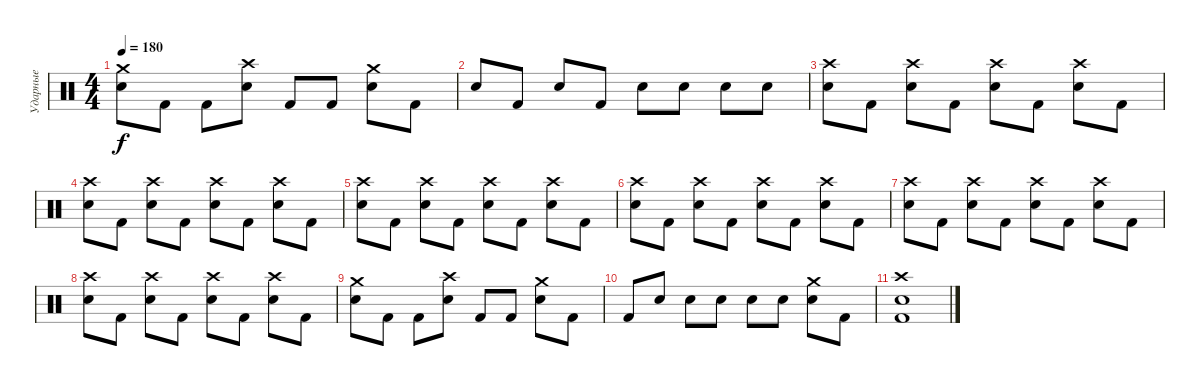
\track ("Ударные" "Ударные") {instrument percussion}
\staff {score}
\articulation defaults
\ts (4 4)
\tempo 180
\clef neutral
\ks c
("Crash medium (hit)" "Snare (hit) 2").8{dy f} "Kick (hit) 2".8 "Kick (hit) 2".8 ("Crash high (hit)" "Snare (hit) 2").8 "Kick (hit) 2".8 "Kick (hit) 2".8 ("Crash medium (hit)" "Snare (hit) 2").8 "Kick (hit) 2".8 |
"Snare (hit) 2".8 "Kick (hit) 2".8 "Snare (hit) 2".8 "Kick (hit) 2".8 "Snare (hit) 2".8 "Snare (hit) 2".8 "Snare (hit) 2".8 "Snare (hit) 2".8 |
("Crash high (hit)" "Snare (hit) 2").8 "Kick (hit) 2".8 ("Crash high (hit)" "Snare (hit) 2").8 "Kick (hit) 2".8 ("Crash high (hit)" "Snare (hit) 2").8 "Kick (hit) 2".8 ("Crash high (hit)" "Snare (hit) 2").8 "Kick (hit) 2".8 |
("Crash high (hit)" "Snare (hit) 2").8 "Kick (hit) 2".8 ("Crash high (hit)" "Snare (hit) 2").8 "Kick (hit) 2".8 ("Crash high (hit)" "Snare (hit) 2").8 "Kick (hit) 2".8 ("Crash high (hit)" "Snare (hit) 2").8 "Kick (hit) 2".8 |
("Crash high (hit)" "Snare (hit) 2").8 "Kick (hit) 2".8 ("Crash high (hit)" "Snare (hit) 2").8 "Kick (hit) 2".8 ("Crash high (hit)" "Snare (hit) 2").8 "Kick (hit) 2".8 ("Crash high (hit)" "Snare (hit) 2").8 "Kick (hit) 2".8 |
("Crash high (hit)" "Snare (hit) 2").8 "Kick (hit) 2".8 ("Crash high (hit)" "Snare (hit) 2").8 "Kick (hit) 2".8 ("Crash high (hit)" "Snare (hit) 2").8 "Kick (hit) 2".8 ("Crash high (hit)" "Snare (hit) 2").8 "Kick (hit) 2".8 |
("Crash high (hit)" "Snare (hit) 2").8 "Kick (hit) 2".8 ("Crash high (hit)" "Snare (hit) 2").8 "Kick (hit) 2".8 ("Crash high (hit)" "Snare (hit) 2").8 "Kick (hit) 2".8 ("Crash high (hit)" "Snare (hit) 2").8 "Kick (hit) 2".8 |
("Crash high (hit)" "Snare (hit) 2").8 "Kick (hit) 2".8 ("Crash high (hit)" "Snare (hit) 2").8 "Kick (hit) 2".8 ("Crash high (hit)" "Snare (hit) 2").8 "Kick (hit) 2".8 ("Crash high (hit)" "Snare (hit) 2").8 "Kick (hit) 2".8 |
("Crash medium (hit)" "Snare (hit) 2").8 "Kick (hit) 2".8 "Kick (hit) 2".8 ("Crash high (hit)" "Snare (hit) 2").8 "Kick (hit) 2".8 "Kick (hit) 2".8 ("Crash medium (hit)" "Snare (hit) 2").8 "Kick (hit) 2".8 |
"Kick (hit) 2".8 "Snare (hit) 2".8 "Snare (hit) 2".8 "Snare (hit) 2".8 "Snare (hit) 2".8 "Snare (hit) 2".8 ("Crash medium (hit)" "Snare (hit) 2").8 "Kick (hit) 2".8 |
("Crash high (hit)" "Snare (hit) 2" "Kick (hit) 2").1
